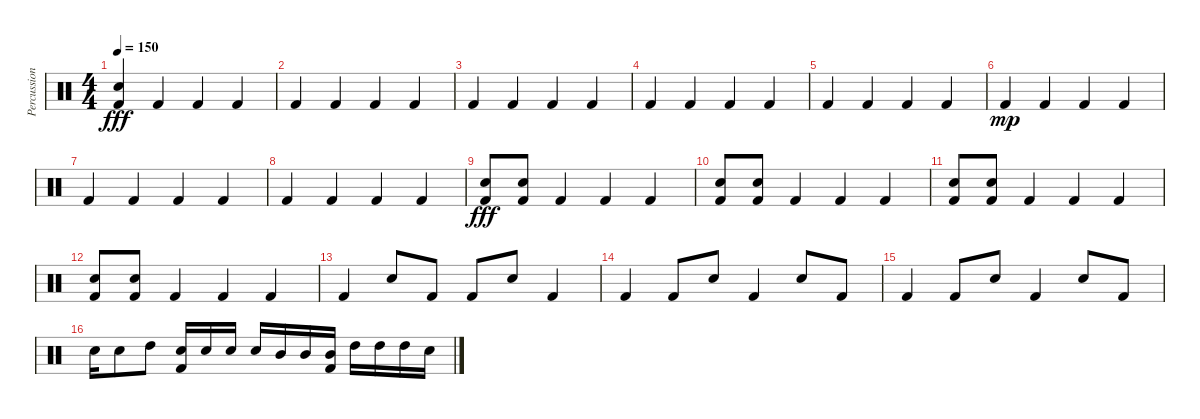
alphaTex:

\track ("Percussion" "Percussion") {instrument percussion}
\staff {score}
\articulation defaults
\ts (4 4)
\tempo 150
\clef neutral
\ks c
("Snare (hit) 2" "Kick (hit) 2").4{dy fff} "Kick (hit) 2".4 "Kick (hit) 2".4 "Kick (hit) 2".4 |
"Kick (hit) 2".4 "Kick (hit) 2".4 "Kick (hit) 2".4 "Kick (hit) 2".4 |
"Kick (hit) 2".4 "Kick (hit) 2".4 "Kick (hit) 2".4 "Kick (hit) 2".4 |
"Kick (hit) 2".4 "Kick (hit) 2".4 "Kick (hit) 2".4 "Kick (hit) 2".4 |
"Kick (hit) 2".4 "Kick (hit) 2".4 "Kick (hit) 2".4 "Kick (hit) 2".4 |
"Kick (hit) 2".4{dy mp} "Kick (hit) 2".4 "Kick (hit) 2".4 "Kick (hit) 2".4 |
"Kick (hit) 2".4 "Kick (hit) 2".4 "Kick (hit) 2".4 "Kick (hit) 2".4 |
"Kick (hit) 2".4 "Kick (hit) 2".4 "Kick (hit) 2".4 "Kick (hit) 2".4 |
("Snare (hit) 2" "Kick (hit) 2").8{dy fff} ("Snare (hit) 2" "Kick (hit) 2").8 "Kick (hit) 2".4 "Kick (hit) 2".4 "Kick (hit) 2".4 |
("Snare (hit) 2" "Kick (hit) 2").8 ("Snare (hit) 2" "Kick (hit) 2").8 "Kick (hit) 2".4 "Kick (hit) 2".4 "Kick (hit) 2".4 |
("Snare (hit) 2" "Kick (hit) 2").8 ("Snare (hit) 2" "Kick (hit) 2").8 "Kick (hit) 2".4 "Kick (hit) 2".4 "Kick (hit) 2".4 |
("Snare (hit) 2" "Kick (hit) 2").8 ("Snare (hit) 2" "Kick (hit) 2").8 "Kick (hit) 2".4 "Kick (hit) 2".4 "Kick (hit) 2".4 |
"Kick (hit) 2".4 "Snare (hit) 2".8 "Kick (hit) 2".8 "Kick (hit) 2".8 "Snare (hit) 2".8 "Kick (hit) 2".4 |
"Kick (hit) 2".4 "Kick (hit) 2".8 "Snare (hit) 2".8 "Kick (hit) 2".4 "Snare (hit) 2".8 "Kick (hit) 2".8 |
"Kick (hit) 2".4 "Kick (hit) 2".8 "Snare (hit) 2".8 "Kick (hit) 2".4 "Snare (hit) 2".8 "Kick (hit) 2".8 |
"Snare (hit) 2".16 "Snare (hit) 2".8 "High Tom (hit)".8 ("Snare (hit) 2" "Kick (hit) 2").16 "Snare (hit) 2".16 "Snare (hit) 2".16 "Snare (hit) 2".16 "Mid Tom (hit)".16 "Mid Tom (hit)".16 ("Mid Tom (hit)" "Kick (hit) 2").16 "High Tom (hit)".16 "High Tom (hit)".16 "High Tom (hit)".16 "Snare (hit) 2".16
